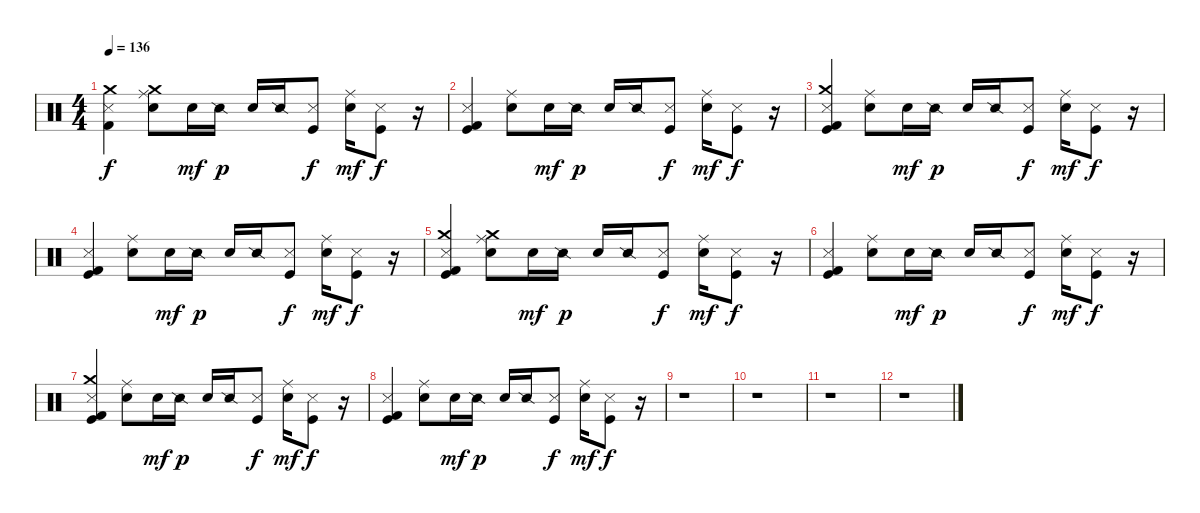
\track "" {instrument percussion}
\staff {score}
\articulation defaults
\ts (4 4)
\tempo 136
\clef neutral
\ks c
("Metronome (hit)" "Kick (hit) 2" "Crash medium (hit)").4{dy f} ("Ride (middle)" "Metronome (bell)" "Crash medium (hit)").8 "Electric Snare (hit)".16{dy mf} "Snare (side stick) 2".16{dy p} "Electric Snare (hit)".16 "Snare (side stick) 2".16 ("Metronome (hit)" "Kick (hit)").8{dy f} ("Ride (middle)" "Electric Snare (hit)").16{dy mf} ("Metronome (hit)" "Kick (hit)").8{dy f} r.16 |
("Metronome (hit)" "Kick (hit) 2" "Kick (hit)").4 ("Ride (middle)" "Metronome (bell)").8 "Electric Snare (hit)".16{dy mf} "Snare (side stick) 2".16{dy p} "Electric Snare (hit)".16 "Snare (side stick) 2".16 ("Metronome (hit)" "Kick (hit)").8{dy f} ("Ride (middle)" "Electric Snare (hit)").16{dy mf} ("Metronome (hit)" "Kick (hit)").8{dy f} r.16 |
("Metronome (hit)" "Kick (hit) 2" "Crash medium (hit)" "Kick (hit)").4 ("Ride (middle)" "Metronome (bell)").8 "Electric Snare (hit)".16{dy mf} "Snare (side stick) 2".16{dy p} "Electric Snare (hit)".16 "Snare (side stick) 2".16 ("Metronome (hit)" "Kick (hit)").8{dy f} ("Ride (middle)" "Electric Snare (hit)").16{dy mf} ("Metronome (hit)" "Kick (hit)").8{dy f} r.16 |
("Metronome (hit)" "Kick (hit) 2" "Kick (hit)").4 ("Ride (middle)" "Metronome (bell)").8 "Electric Snare (hit)".16{dy mf} "Snare (side stick) 2".16{dy p} "Electric Snare (hit)".16 "Snare (side stick) 2".16 ("Metronome (hit)" "Kick (hit)").8{dy f} ("Ride (middle)" "Electric Snare (hit)").16{dy mf} ("Metronome (hit)" "Kick (hit)").8{dy f} r.16 |
("Metronome (hit)" "Kick (hit) 2" "Crash medium (hit)" "Kick (hit)").4 ("Ride (middle)" "Metronome (bell)" "Crash medium (hit)").8 "Electric Snare (hit)".16{dy mf} "Snare (side stick) 2".16{dy p} "Electric Snare (hit)".16 "Snare (side stick) 2".16 ("Metronome (hit)" "Kick (hit)").8{dy f} ("Ride (middle)" "Electric Snare (hit)").16{dy mf} ("Metronome (hit)" "Kick (hit)").8{dy f} r.16 |
("Metronome (hit)" "Kick (hit) 2" "Kick (hit)").4 ("Ride (middle)" "Metronome (bell)").8 "Electric Snare (hit)".16{dy mf} "Snare (side stick) 2".16{dy p} "Electric Snare (hit)".16 "Snare (side stick) 2".16 ("Metronome (hit)" "Kick (hit)").8{dy f} ("Ride (middle)" "Electric Snare (hit)").16{dy mf} ("Metronome (hit)" "Kick (hit)").8{dy f} r.16 |
("Metronome (hit)" "Kick (hit) 2" "Crash medium (hit)" "Kick (hit)").4 ("Ride (middle)" "Metronome (bell)").8 "Electric Snare (hit)".16{dy mf} "Snare (side stick) 2".16{dy p} "Electric Snare (hit)".16 "Snare (side stick) 2".16 ("Metronome (hit)" "Kick (hit)").8{dy f} ("Ride (middle)" "Electric Snare (hit)").16{dy mf} ("Metronome (hit)" "Kick (hit)").8{dy f} r.16 |
("Metronome (hit)" "Kick (hit) 2" "Kick (hit)").4 ("Ride (middle)" "Metronome (bell)").8 "Electric Snare (hit)".16{dy mf} "Snare (side stick) 2".16{dy p} "Electric Snare (hit)".16 "Snare (side stick) 2".16 ("Metronome (hit)" "Kick (hit)").8{dy f} ("Ride (middle)" "Electric Snare (hit)").16{dy mf} ("Metronome (hit)" "Kick (hit)").8{dy f} r.16 |
r.1 |
r.1 |
r.1 |
r.1
